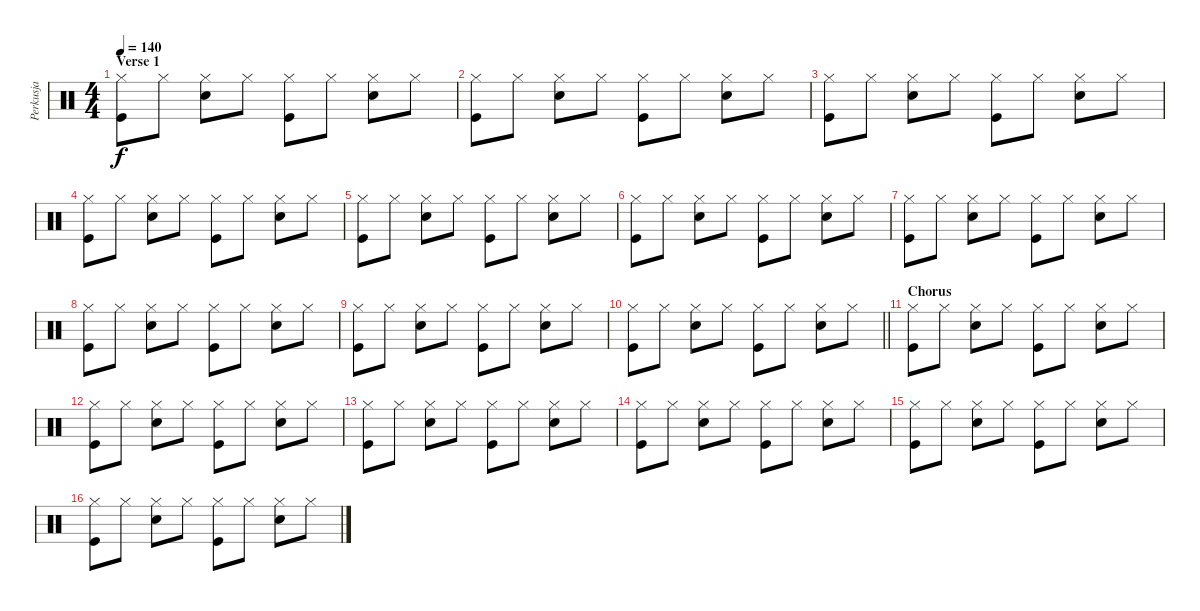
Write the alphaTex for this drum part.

\track ("Perkusja" "Perkusja") {instrument percussion}
\staff {score}
\articulation defaults
\ts (4 4)
\section ("" "Verse 1")
\tempo 140
\clef neutral
\ks c
("Hi-Hat (closed)" "Kick (hit)").8{dy f} "Hi-Hat (closed)".8 ("Hi-Hat (closed)" "Electric Snare (hit)").8 "Hi-Hat (closed)".8 ("Hi-Hat (closed)" "Kick (hit)").8 "Hi-Hat (closed)".8 ("Hi-Hat (closed)" "Electric Snare (hit)").8 "Hi-Hat (closed)".8 |
("Hi-Hat (closed)" "Kick (hit)").8 "Hi-Hat (closed)".8 ("Hi-Hat (closed)" "Electric Snare (hit)").8 "Hi-Hat (closed)".8 ("Hi-Hat (closed)" "Kick (hit)").8 "Hi-Hat (closed)".8 ("Hi-Hat (closed)" "Electric Snare (hit)").8 "Hi-Hat (closed)".8 |
("Hi-Hat (closed)" "Kick (hit)").8 "Hi-Hat (closed)".8 ("Hi-Hat (closed)" "Electric Snare (hit)").8 "Hi-Hat (closed)".8 ("Hi-Hat (closed)" "Kick (hit)").8 "Hi-Hat (closed)".8 ("Hi-Hat (closed)" "Electric Snare (hit)").8 "Hi-Hat (closed)".8 |
("Hi-Hat (closed)" "Kick (hit)").8 "Hi-Hat (closed)".8 ("Hi-Hat (closed)" "Electric Snare (hit)").8 "Hi-Hat (closed)".8 ("Hi-Hat (closed)" "Kick (hit)").8 "Hi-Hat (closed)".8 ("Hi-Hat (closed)" "Electric Snare (hit)").8 "Hi-Hat (closed)".8 |
("Hi-Hat (closed)" "Kick (hit)").8 "Hi-Hat (closed)".8 ("Hi-Hat (closed)" "Electric Snare (hit)").8 "Hi-Hat (closed)".8 ("Hi-Hat (closed)" "Kick (hit)").8 "Hi-Hat (closed)".8 ("Hi-Hat (closed)" "Electric Snare (hit)").8 "Hi-Hat (closed)".8 |
("Hi-Hat (closed)" "Kick (hit)").8 "Hi-Hat (closed)".8 ("Hi-Hat (closed)" "Electric Snare (hit)").8 "Hi-Hat (closed)".8 ("Hi-Hat (closed)" "Kick (hit)").8 "Hi-Hat (closed)".8 ("Hi-Hat (closed)" "Electric Snare (hit)").8 "Hi-Hat (closed)".8 |
("Hi-Hat (closed)" "Kick (hit)").8 "Hi-Hat (closed)".8 ("Hi-Hat (closed)" "Electric Snare (hit)").8 "Hi-Hat (closed)".8 ("Hi-Hat (closed)" "Kick (hit)").8 "Hi-Hat (closed)".8 ("Hi-Hat (closed)" "Electric Snare (hit)").8 "Hi-Hat (closed)".8 |
("Hi-Hat (closed)" "Kick (hit)").8 "Hi-Hat (closed)".8 ("Hi-Hat (closed)" "Electric Snare (hit)").8 "Hi-Hat (closed)".8 ("Hi-Hat (closed)" "Kick (hit)").8 "Hi-Hat (closed)".8 ("Hi-Hat (closed)" "Electric Snare (hit)").8 "Hi-Hat (closed)".8 |
("Hi-Hat (closed)" "Kick (hit)").8 "Hi-Hat (closed)".8 ("Hi-Hat (closed)" "Electric Snare (hit)").8 "Hi-Hat (closed)".8 ("Hi-Hat (closed)" "Kick (hit)").8 "Hi-Hat (closed)".8 ("Hi-Hat (closed)" "Electric Snare (hit)").8 "Hi-Hat (closed)".8 |
\barLineRight lightlight
("Hi-Hat (closed)" "Kick (hit)").8 "Hi-Hat (closed)".8 ("Hi-Hat (closed)" "Electric Snare (hit)").8 "Hi-Hat (closed)".8 ("Hi-Hat (closed)" "Kick (hit)").8 "Hi-Hat (closed)".8 ("Hi-Hat (closed)" "Electric Snare (hit)").8 "Hi-Hat (closed)".8 |
\section ("" "Chorus")
("Hi-Hat (closed)" "Kick (hit)").8 "Hi-Hat (closed)".8 ("Hi-Hat (closed)" "Electric Snare (hit)").8 "Hi-Hat (closed)".8 ("Hi-Hat (closed)" "Kick (hit)").8 "Hi-Hat (closed)".8 ("Hi-Hat (closed)" "Electric Snare (hit)").8 "Hi-Hat (closed)".8 |
("Hi-Hat (closed)" "Kick (hit)").8 "Hi-Hat (closed)".8 ("Hi-Hat (closed)" "Electric Snare (hit)").8 "Hi-Hat (closed)".8 ("Hi-Hat (closed)" "Kick (hit)").8 "Hi-Hat (closed)".8 ("Hi-Hat (closed)" "Electric Snare (hit)").8 "Hi-Hat (closed)".8 |
("Hi-Hat (closed)" "Kick (hit)").8 "Hi-Hat (closed)".8 ("Hi-Hat (closed)" "Electric Snare (hit)").8 "Hi-Hat (closed)".8 ("Hi-Hat (closed)" "Kick (hit)").8 "Hi-Hat (closed)".8 ("Hi-Hat (closed)" "Electric Snare (hit)").8 "Hi-Hat (closed)".8 |
("Hi-Hat (closed)" "Kick (hit)").8 "Hi-Hat (closed)".8 ("Hi-Hat (closed)" "Electric Snare (hit)").8 "Hi-Hat (closed)".8 ("Hi-Hat (closed)" "Kick (hit)").8 "Hi-Hat (closed)".8 ("Hi-Hat (closed)" "Electric Snare (hit)").8 "Hi-Hat (closed)".8 |
("Hi-Hat (closed)" "Kick (hit)").8 "Hi-Hat (closed)".8 ("Hi-Hat (closed)" "Electric Snare (hit)").8 "Hi-Hat (closed)".8 ("Hi-Hat (closed)" "Kick (hit)").8 "Hi-Hat (closed)".8 ("Hi-Hat (closed)" "Electric Snare (hit)").8 "Hi-Hat (closed)".8 |
("Hi-Hat (closed)" "Kick (hit)").8 "Hi-Hat (closed)".8 ("Hi-Hat (closed)" "Electric Snare (hit)").8 "Hi-Hat (closed)".8 ("Hi-Hat (closed)" "Kick (hit)").8 "Hi-Hat (closed)".8 ("Hi-Hat (closed)" "Electric Snare (hit)").8 "Hi-Hat (closed)".8
